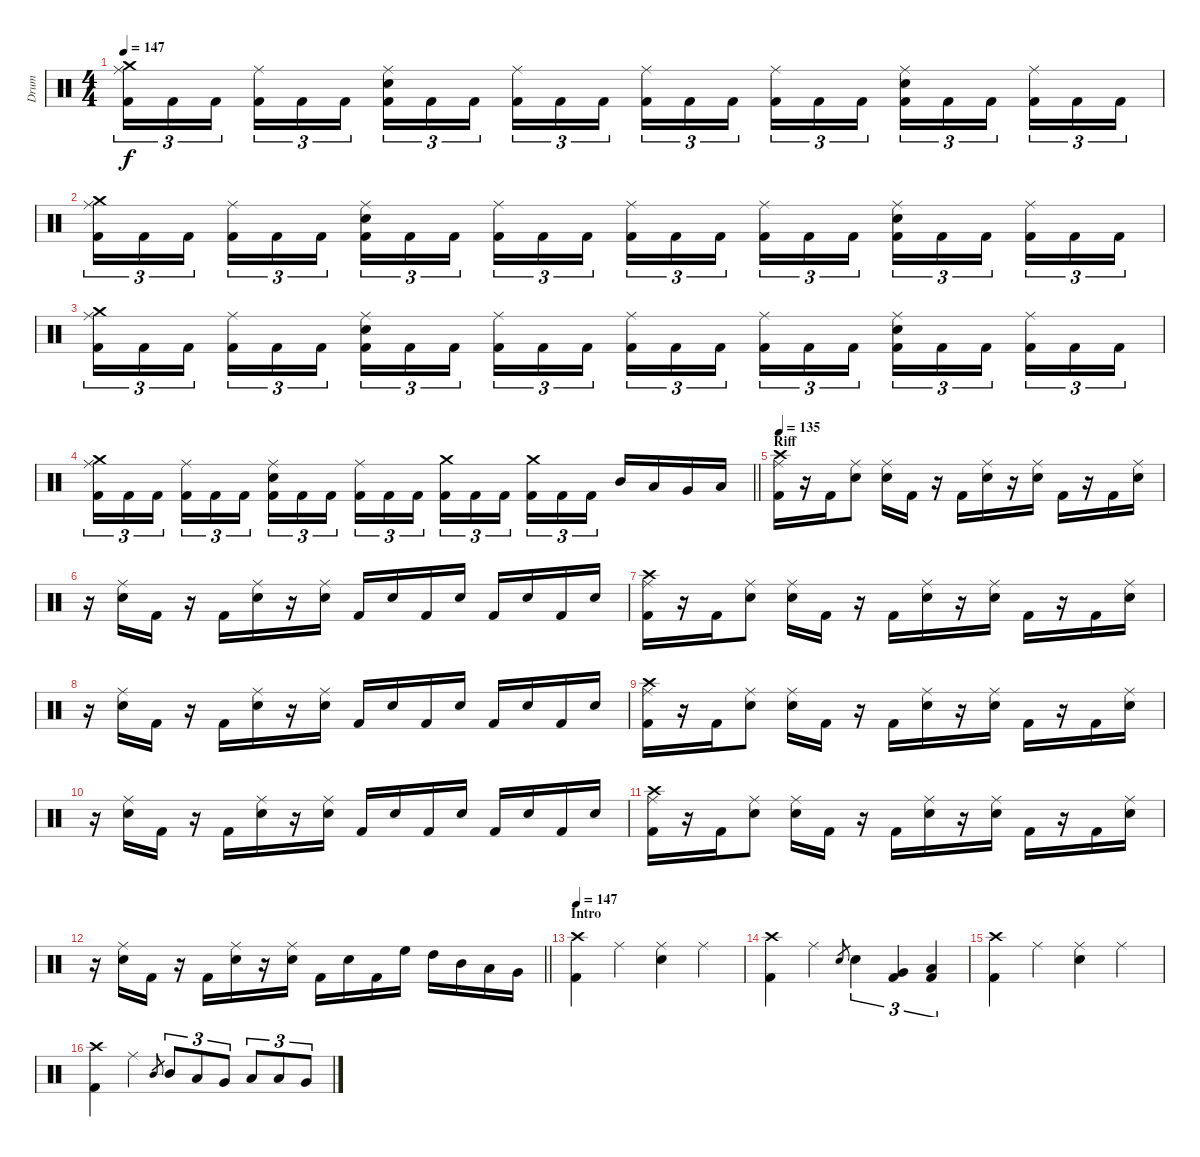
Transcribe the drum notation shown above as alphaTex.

\track ("Drum" "Drum") {instrument percussion}
\staff {score}
\articulation defaults
\ts (4 4)
\tempo 147
\clef neutral
\ks c
("Crash medium (hit)" "Ride (middle)" "Kick (hit) 2").16{tu (3 2) dy f} "Kick (hit) 2".16{tu (3 2)} "Kick (hit) 2".16{tu (3 2) beam splitsecondary} ("Ride (middle)" "Kick (hit) 2").16{tu (3 2)} "Kick (hit) 2".16{tu (3 2)} "Kick (hit) 2".16{tu (3 2)} ("Ride (middle)" "Electric Snare (hit)" "Kick (hit) 2").16{tu (3 2)} "Kick (hit) 2".16{tu (3 2)} "Kick (hit) 2".16{tu (3 2) beam splitsecondary} ("Ride (middle)" "Kick (hit) 2").16{tu (3 2)} "Kick (hit) 2".16{tu (3 2)} "Kick (hit) 2".16{tu (3 2)} ("Ride (middle)" "Kick (hit) 2").16{tu (3 2)} "Kick (hit) 2".16{tu (3 2)} "Kick (hit) 2".16{tu (3 2) beam splitsecondary} ("Ride (middle)" "Kick (hit) 2").16{tu (3 2)} "Kick (hit) 2".16{tu (3 2)} "Kick (hit) 2".16{tu (3 2)} ("Ride (middle)" "Electric Snare (hit)" "Kick (hit) 2").16{tu (3 2)} "Kick (hit) 2".16{tu (3 2)} "Kick (hit) 2".16{tu (3 2) beam splitsecondary} ("Ride (middle)" "Kick (hit) 2").16{tu (3 2)} "Kick (hit) 2".16{tu (3 2)} "Kick (hit) 2".16{tu (3 2)} |
("Crash medium (hit)" "Ride (middle)" "Kick (hit) 2").16{tu (3 2)} "Kick (hit) 2".16{tu (3 2)} "Kick (hit) 2".16{tu (3 2) beam splitsecondary} ("Ride (middle)" "Kick (hit) 2").16{tu (3 2)} "Kick (hit) 2".16{tu (3 2)} "Kick (hit) 2".16{tu (3 2)} ("Ride (middle)" "Electric Snare (hit)" "Kick (hit) 2").16{tu (3 2)} "Kick (hit) 2".16{tu (3 2)} "Kick (hit) 2".16{tu (3 2) beam splitsecondary} ("Ride (middle)" "Kick (hit) 2").16{tu (3 2)} "Kick (hit) 2".16{tu (3 2)} "Kick (hit) 2".16{tu (3 2)} ("Ride (middle)" "Kick (hit) 2").16{tu (3 2)} "Kick (hit) 2".16{tu (3 2)} "Kick (hit) 2".16{tu (3 2) beam splitsecondary} ("Ride (middle)" "Kick (hit) 2").16{tu (3 2)} "Kick (hit) 2".16{tu (3 2)} "Kick (hit) 2".16{tu (3 2)} ("Ride (middle)" "Electric Snare (hit)" "Kick (hit) 2").16{tu (3 2)} "Kick (hit) 2".16{tu (3 2)} "Kick (hit) 2".16{tu (3 2) beam splitsecondary} ("Ride (middle)" "Kick (hit) 2").16{tu (3 2)} "Kick (hit) 2".16{tu (3 2)} "Kick (hit) 2".16{tu (3 2)} |
("Crash medium (hit)" "Ride (middle)" "Kick (hit) 2").16{tu (3 2)} "Kick (hit) 2".16{tu (3 2)} "Kick (hit) 2".16{tu (3 2) beam splitsecondary} ("Ride (middle)" "Kick (hit) 2").16{tu (3 2)} "Kick (hit) 2".16{tu (3 2)} "Kick (hit) 2".16{tu (3 2)} ("Ride (middle)" "Electric Snare (hit)" "Kick (hit) 2").16{tu (3 2)} "Kick (hit) 2".16{tu (3 2)} "Kick (hit) 2".16{tu (3 2) beam splitsecondary} ("Ride (middle)" "Kick (hit) 2").16{tu (3 2)} "Kick (hit) 2".16{tu (3 2)} "Kick (hit) 2".16{tu (3 2)} ("Ride (middle)" "Kick (hit) 2").16{tu (3 2)} "Kick (hit) 2".16{tu (3 2)} "Kick (hit) 2".16{tu (3 2) beam splitsecondary} ("Ride (middle)" "Kick (hit) 2").16{tu (3 2)} "Kick (hit) 2".16{tu (3 2)} "Kick (hit) 2".16{tu (3 2)} ("Ride (middle)" "Electric Snare (hit)" "Kick (hit) 2").16{tu (3 2)} "Kick (hit) 2".16{tu (3 2)} "Kick (hit) 2".16{tu (3 2) beam splitsecondary} ("Ride (middle)" "Kick (hit) 2").16{tu (3 2)} "Kick (hit) 2".16{tu (3 2)} "Kick (hit) 2".16{tu (3 2)} |
\barLineRight lightlight
("Crash medium (hit)" "Ride (middle)" "Kick (hit) 2").16{tu (3 2)} "Kick (hit) 2".16{tu (3 2)} "Kick (hit) 2".16{tu (3 2) beam splitsecondary} ("Ride (middle)" "Kick (hit) 2").16{tu (3 2)} "Kick (hit) 2".16{tu (3 2)} "Kick (hit) 2".16{tu (3 2)} ("Ride (middle)" "Electric Snare (hit)" "Kick (hit) 2").16{tu (3 2)} "Kick (hit) 2".16{tu (3 2)} "Kick (hit) 2".16{tu (3 2) beam splitsecondary} ("Ride (middle)" "Kick (hit) 2").16{tu (3 2)} "Kick (hit) 2".16{tu (3 2)} "Kick (hit) 2".16{tu (3 2)} ("Crash medium (hit)" "Kick (hit) 2").16{tu (3 2)} "Kick (hit) 2".16{tu (3 2)} "Kick (hit) 2".16{tu (3 2) beam splitsecondary} ("Crash medium (hit)" "Kick (hit) 2").16{tu (3 2)} "Kick (hit) 2".16{tu (3 2)} "Kick (hit) 2".16{tu (3 2)} "Mid Tom (hit)".16 "Low Tom (hit)".16 "Very Low Tom (hit)".16 "Low Floor Tom (hit)".16 |
\section ("" "Riff")
\tempo 135
("Crash high (hit)" "Ride (middle)" "Kick (hit) 2").16 r.16 "Kick (hit) 2".16 ("Ride (middle)" "Electric Snare (hit)").8 ("Ride (middle)" "Electric Snare (hit)").16 "Kick (hit) 2".16 r.16 "Kick (hit) 2".16 ("Ride (middle)" "Electric Snare (hit)").16 r.16 ("Ride (middle)" "Electric Snare (hit)").16 "Kick (hit) 2".16 r.16 "Kick (hit) 2".16 ("Ride (middle)" "Electric Snare (hit)").16 |
r.16 ("Ride (middle)" "Electric Snare (hit)").16 "Kick (hit) 2".16 r.16 "Kick (hit) 2".16 ("Ride (middle)" "Electric Snare (hit)").16 r.16 ("Ride (middle)" "Electric Snare (hit)").16 "Kick (hit) 2".16 "Electric Snare (hit)".16 "Kick (hit) 2".16 "Electric Snare (hit)".16 "Kick (hit) 2".16 "Electric Snare (hit)".16 "Kick (hit) 2".16 "Electric Snare (hit)".16 |
("Crash high (hit)" "Ride (middle)" "Kick (hit) 2").16 r.16 "Kick (hit) 2".16 ("Ride (middle)" "Electric Snare (hit)").8 ("Ride (middle)" "Electric Snare (hit)").16 "Kick (hit) 2".16 r.16 "Kick (hit) 2".16 ("Ride (middle)" "Electric Snare (hit)").16 r.16 ("Ride (middle)" "Electric Snare (hit)").16 "Kick (hit) 2".16 r.16 "Kick (hit) 2".16 ("Ride (middle)" "Electric Snare (hit)").16 |
r.16 ("Ride (middle)" "Electric Snare (hit)").16 "Kick (hit) 2".16 r.16 "Kick (hit) 2".16 ("Ride (middle)" "Electric Snare (hit)").16 r.16 ("Ride (middle)" "Electric Snare (hit)").16 "Kick (hit) 2".16 "Electric Snare (hit)".16 "Kick (hit) 2".16 "Electric Snare (hit)".16 "Kick (hit) 2".16 "Electric Snare (hit)".16 "Kick (hit) 2".16 "Electric Snare (hit)".16 |
("Crash high (hit)" "Ride (middle)" "Kick (hit) 2").16 r.16 "Kick (hit) 2".16 ("Ride (middle)" "Electric Snare (hit)").8 ("Ride (middle)" "Electric Snare (hit)").16 "Kick (hit) 2".16 r.16 "Kick (hit) 2".16 ("Ride (middle)" "Electric Snare (hit)").16 r.16 ("Ride (middle)" "Electric Snare (hit)").16 "Kick (hit) 2".16 r.16 "Kick (hit) 2".16 ("Ride (middle)" "Electric Snare (hit)").16 |
r.16 ("Ride (middle)" "Electric Snare (hit)").16 "Kick (hit) 2".16 r.16 "Kick (hit) 2".16 ("Ride (middle)" "Electric Snare (hit)").16 r.16 ("Ride (middle)" "Electric Snare (hit)").16 "Kick (hit) 2".16 "Electric Snare (hit)".16 "Kick (hit) 2".16 "Electric Snare (hit)".16 "Kick (hit) 2".16 "Electric Snare (hit)".16 "Kick (hit) 2".16 "Electric Snare (hit)".16 |
("Crash high (hit)" "Ride (middle)" "Kick (hit) 2").16 r.16 "Kick (hit) 2".16 ("Ride (middle)" "Electric Snare (hit)").8 ("Ride (middle)" "Electric Snare (hit)").16 "Kick (hit) 2".16 r.16 "Kick (hit) 2".16 ("Ride (middle)" "Electric Snare (hit)").16 r.16 ("Ride (middle)" "Electric Snare (hit)").16 "Kick (hit) 2".16 r.16 "Kick (hit) 2".16 ("Ride (middle)" "Electric Snare (hit)").16 |
\barLineRight lightlight
r.16 ("Ride (middle)" "Electric Snare (hit)").16 "Kick (hit) 2".16 r.16 "Kick (hit) 2".16 ("Ride (middle)" "Electric Snare (hit)").16 r.16 ("Ride (middle)" "Electric Snare (hit)").16 "Kick (hit) 2".16 "Electric Snare (hit)".16 "Kick (hit) 2".16 "High Floor Tom (hit)".16 "High Tom (hit)".16 "Mid Tom (hit)".16 "Low Tom (hit)".16 "Very Low Tom (hit)".16 |
\section ("" "Intro")
\tempo 147
("Crash high (hit)" "Kick (hit) 2").4 "Ride (middle)".4 ("Ride (middle)" "Electric Snare (hit)").4 "Ride (middle)".4 |
("Crash high (hit)" "Kick (hit) 2").4 "Ride (middle)".4 "Electric Snare (hit)".8{gr} "Electric Snare (hit)".4{tu (3 2)} ("Very Low Tom (hit)" "Kick (hit) 2").4{tu (3 2)} ("Low Floor Tom (hit)" "Kick (hit) 2").4{tu (3 2)} |
("Crash high (hit)" "Kick (hit) 2").4 "Ride (middle)".4 ("Ride (middle)" "Electric Snare (hit)").4 "Ride (middle)".4 |
("Crash high (hit)" "Kick (hit) 2").4 "Ride (middle)".4 "Mid Tom (hit)".8{gr} "Mid Tom (hit)".8{tu (3 2)} "Low Tom (hit)".8{tu (3 2)} "Very Low Tom (hit)".8{tu (3 2)} "Low Floor Tom (hit)".8{tu (3 2)} "Low Tom (hit)".8{tu (3 2)} "Very Low Tom (hit)".8{tu (3 2)}
